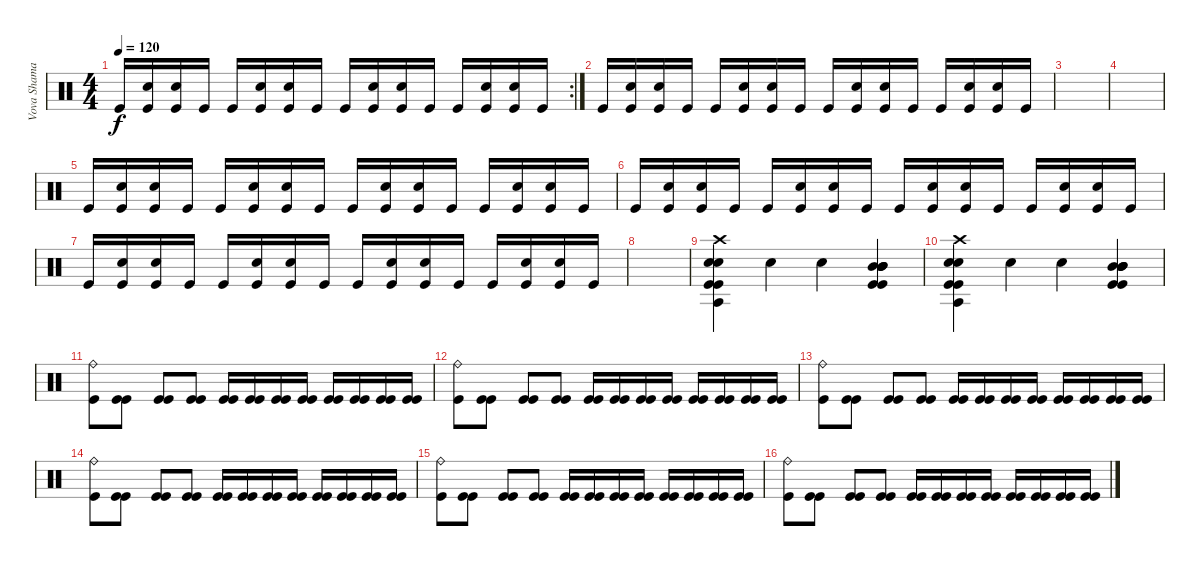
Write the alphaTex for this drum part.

\track ("Vova Shamay" "Vova Shama") {instrument percussion}
\staff {score}
\articulation defaults
\rc 2
\ts (4 4)
\tempo 120
\clef neutral
\ks c "Kick (hit)".16{dy f}
("Kick (hit)" "Electric Snare (hit)").16 ("Kick (hit)" "Electric Snare (hit)").16 "Kick (hit)".16 "Kick (hit)".16 ("Kick (hit)" "Electric Snare (hit)").16 ("Kick (hit)" "Electric Snare (hit)").16 "Kick (hit)".16 "Kick (hit)".16 ("Kick (hit)" "Electric Snare (hit)").16 ("Kick (hit)" "Electric Snare (hit)").16 "Kick (hit)".16 "Kick (hit)".16 ("Kick (hit)" "Electric Snare (hit)").16 ("Kick (hit)" "Electric Snare (hit)").16 "Kick (hit)".16 |
"Kick (hit)".16 ("Kick (hit)" "Electric Snare (hit)").16 ("Kick (hit)" "Electric Snare (hit)").16 "Kick (hit)".16 "Kick (hit)".16 ("Kick (hit)" "Electric Snare (hit)").16 ("Kick (hit)" "Electric Snare (hit)").16 "Kick (hit)".16 "Kick (hit)".16 ("Kick (hit)" "Electric Snare (hit)").16 ("Kick (hit)" "Electric Snare (hit)").16 "Kick (hit)".16 "Kick (hit)".16 ("Kick (hit)" "Electric Snare (hit)").16 ("Kick (hit)" "Electric Snare (hit)").16 "Kick (hit)".16 |
|
|
"Kick (hit)".16 ("Kick (hit)" "Electric Snare (hit)").16 ("Kick (hit)" "Electric Snare (hit)").16 "Kick (hit)".16 "Kick (hit)".16 ("Kick (hit)" "Electric Snare (hit)").16 ("Kick (hit)" "Electric Snare (hit)").16 "Kick (hit)".16 "Kick (hit)".16 ("Kick (hit)" "Electric Snare (hit)").16 ("Kick (hit)" "Electric Snare (hit)").16 "Kick (hit)".16 "Kick (hit)".16 ("Kick (hit)" "Electric Snare (hit)").16 ("Kick (hit)" "Electric Snare (hit)").16 "Kick (hit)".16 |
"Kick (hit)".16 ("Kick (hit)" "Electric Snare (hit)").16 ("Kick (hit)" "Electric Snare (hit)").16 "Kick (hit)".16 "Kick (hit)".16 ("Kick (hit)" "Electric Snare (hit)").16 ("Kick (hit)" "Electric Snare (hit)").16 "Kick (hit)".16 "Kick (hit)".16 ("Kick (hit)" "Electric Snare (hit)").16 ("Kick (hit)" "Electric Snare (hit)").16 "Kick (hit)".16 "Kick (hit)".16 ("Kick (hit)" "Electric Snare (hit)").16 ("Kick (hit)" "Electric Snare (hit)").16 "Kick (hit)".16 |
"Kick (hit)".16 ("Kick (hit)" "Electric Snare (hit)").16 ("Kick (hit)" "Electric Snare (hit)").16 "Kick (hit)".16 "Kick (hit)".16 ("Kick (hit)" "Electric Snare (hit)").16 ("Kick (hit)" "Electric Snare (hit)").16 "Kick (hit)".16 "Kick (hit)".16 ("Kick (hit)" "Electric Snare (hit)").16 ("Kick (hit)" "Electric Snare (hit)").16 "Kick (hit)".16 "Kick (hit)".16 ("Kick (hit)" "Electric Snare (hit)").16 ("Kick (hit)" "Electric Snare (hit)").16 "Kick (hit)".16 |
|
("Hand Clap (hit)" "Kick (hit)" "Agogo tow (hit)" "Electric Snare (hit)" "Crash high (hit)" "Kick (hit)").4 "Hand Clap (hit)".4 "Hand Clap (hit)".4 ("Kick (hit)" "Kick (hit)" "Mid Tom (hit)" "Mid Tom (hit)" "Mid Tom (hit)" "Mid Tom (hit)").4 |
("Hand Clap (hit)" "Kick (hit)" "Agogo tow (hit)" "Electric Snare (hit)" "Crash high (hit)" "Kick (hit)").4 "Hand Clap (hit)".4 "Hand Clap (hit)".4 ("Kick (hit)" "Kick (hit)" "Mid Tom (hit)" "Mid Tom (hit)" "Mid Tom (hit)" "Mid Tom (hit)").4 |
("Kick (hit)" "Ride (bell)").8 ("Kick (hit)" "Kick (hit)").8 ("Kick (hit)" "Kick (hit)").8 ("Kick (hit)" "Kick (hit)").8 ("Kick (hit)" "Kick (hit)").16 ("Kick (hit)" "Kick (hit)").16 ("Kick (hit)" "Kick (hit)").16 ("Kick (hit)" "Kick (hit)").16 ("Kick (hit)" "Kick (hit)").16 ("Kick (hit)" "Kick (hit)").16 ("Kick (hit)" "Kick (hit)").16 ("Kick (hit)" "Kick (hit)").16 |
("Kick (hit)" "Ride (bell)").8 ("Kick (hit)" "Kick (hit)").8 ("Kick (hit)" "Kick (hit)").8 ("Kick (hit)" "Kick (hit)").8 ("Kick (hit)" "Kick (hit)").16 ("Kick (hit)" "Kick (hit)").16 ("Kick (hit)" "Kick (hit)").16 ("Kick (hit)" "Kick (hit)").16 ("Kick (hit)" "Kick (hit)").16 ("Kick (hit)" "Kick (hit)").16 ("Kick (hit)" "Kick (hit)").16 ("Kick (hit)" "Kick (hit)").16 |
("Kick (hit)" "Ride (bell)").8 ("Kick (hit)" "Kick (hit)").8 ("Kick (hit)" "Kick (hit)").8 ("Kick (hit)" "Kick (hit)").8 ("Kick (hit)" "Kick (hit)").16 ("Kick (hit)" "Kick (hit)").16 ("Kick (hit)" "Kick (hit)").16 ("Kick (hit)" "Kick (hit)").16 ("Kick (hit)" "Kick (hit)").16 ("Kick (hit)" "Kick (hit)").16 ("Kick (hit)" "Kick (hit)").16 ("Kick (hit)" "Kick (hit)").16 |
("Kick (hit)" "Ride (bell)").8 ("Kick (hit)" "Kick (hit)").8 ("Kick (hit)" "Kick (hit)").8 ("Kick (hit)" "Kick (hit)").8 ("Kick (hit)" "Kick (hit)").16 ("Kick (hit)" "Kick (hit)").16 ("Kick (hit)" "Kick (hit)").16 ("Kick (hit)" "Kick (hit)").16 ("Kick (hit)" "Kick (hit)").16 ("Kick (hit)" "Kick (hit)").16 ("Kick (hit)" "Kick (hit)").16 ("Kick (hit)" "Kick (hit)").16 |
("Kick (hit)" "Ride (bell)").8 ("Kick (hit)" "Kick (hit)").8 ("Kick (hit)" "Kick (hit)").8 ("Kick (hit)" "Kick (hit)").8 ("Kick (hit)" "Kick (hit)").16 ("Kick (hit)" "Kick (hit)").16 ("Kick (hit)" "Kick (hit)").16 ("Kick (hit)" "Kick (hit)").16 ("Kick (hit)" "Kick (hit)").16 ("Kick (hit)" "Kick (hit)").16 ("Kick (hit)" "Kick (hit)").16 ("Kick (hit)" "Kick (hit)").16 |
("Kick (hit)" "Ride (bell)").8 ("Kick (hit)" "Kick (hit)").8 ("Kick (hit)" "Kick (hit)").8 ("Kick (hit)" "Kick (hit)").8 ("Kick (hit)" "Kick (hit)").16 ("Kick (hit)" "Kick (hit)").16 ("Kick (hit)" "Kick (hit)").16 ("Kick (hit)" "Kick (hit)").16 ("Kick (hit)" "Kick (hit)").16 ("Kick (hit)" "Kick (hit)").16 ("Kick (hit)" "Kick (hit)").16 ("Kick (hit)" "Kick (hit)").16
